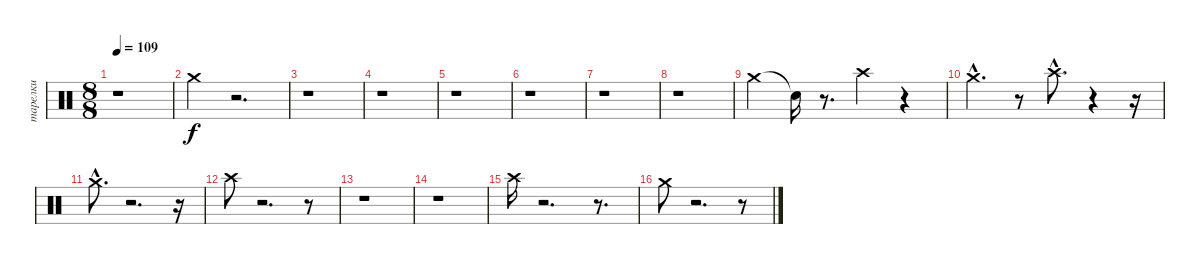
\track ("тарелки" "тарелки") {instrument percussion}
\staff {score}
\articulation defaults
\ts (8 8)
\tempo 109
\clef neutral
\ks c
r.1{dy f} |
"Crash medium (hit)".4 r.2{d} |
r.1 |
r.1 |
r.1 |
r.1 |
r.1 |
r.1 |
"Crash medium (hit)".4 "Snare (hit)"{t}.16 r.8{d} "Crash high (hit)".4 r.4 |
"Crash medium (hit)"{hac}.4{d} r.8 "Crash high (hit)"{hac}.8{d} r.4 r.16 |
"Crash medium (hit)"{hac}.8{d} r.2{d} r.16 |
"Crash high (hit)".8 r.2{d} r.8 |
r.1 |
r.1 |
"Crash high (hit)".16 r.2{d} r.8{d} |
"Crash medium (hit)".8 r.2{d} r.8
